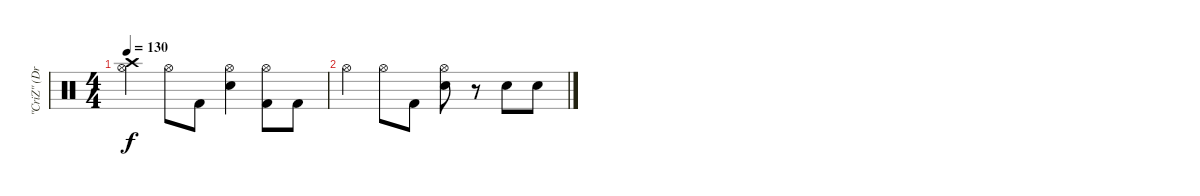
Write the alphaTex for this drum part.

\track ("\"CriZ\" (Drums/Percussion)" "\"CriZ\" (Dr") {instrument percussion}
\staff {score}
\articulation defaults
\ts (4 4)
\tempo 130
\clef neutral
\ks c
("Crash high (hit)" "Hi-Hat (open)").4{dy f} "Hi-Hat (open)".8 "Kick (hit) 2".8 ("Hi-Hat (open)" "Snare (hit) 2").4 ("Hi-Hat (open)" "Kick (hit) 2").8 "Kick (hit) 2".8 |
"Hi-Hat (open)".4 "Hi-Hat (open)".8 "Kick (hit) 2".8 ("Hi-Hat (open)" "Snare (hit) 2").8 r.8 "Snare (hit) 2".8 "Snare (hit) 2".8
